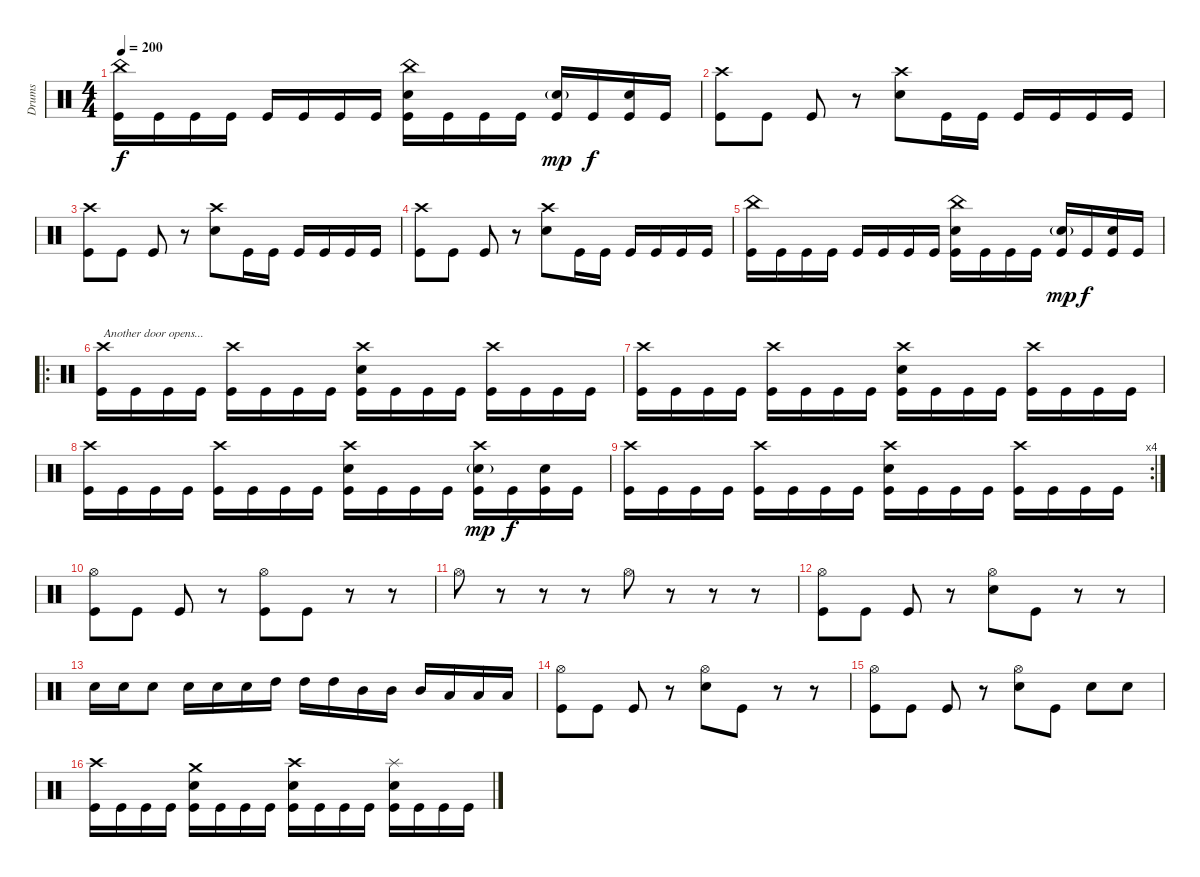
\track ("Drums" "Drums") {instrument percussion}
\staff {score}
\articulation defaults
\ts (4 4)
\tempo 200
\clef neutral
\ks c
("China (hit)" "Kick (hit)").16{dy f} "Kick (hit)".16 "Kick (hit)".16 "Kick (hit)".16 "Kick (hit)".16 "Kick (hit)".16 "Kick (hit)".16 "Kick (hit)".16 ("China (hit)" "Snare (hit) 2" "Kick (hit)").16 "Kick (hit)".16 "Kick (hit)".16 "Kick (hit)".16 ("Snare (hit) 2"{g} "Kick (hit)").16{dy mp} "Kick (hit)".16{dy f} ("Snare (hit) 2" "Kick (hit)").16 "Kick (hit)".16 |
("Crash high (hit)" "Kick (hit)").8 "Kick (hit)".8 "Kick (hit)".8 r.8 ("Crash high (hit)" "Snare (hit) 2").8 "Kick (hit)".16 "Kick (hit)".16 "Kick (hit)".16 "Kick (hit)".16 "Kick (hit)".16 "Kick (hit)".16 |
("Crash high (hit)" "Kick (hit)").8 "Kick (hit)".8 "Kick (hit)".8 r.8 ("Crash high (hit)" "Snare (hit) 2").8 "Kick (hit)".16 "Kick (hit)".16 "Kick (hit)".16 "Kick (hit)".16 "Kick (hit)".16 "Kick (hit)".16 |
("Crash high (hit)" "Kick (hit)").8 "Kick (hit)".8 "Kick (hit)".8 r.8 ("Crash high (hit)" "Snare (hit) 2").8 "Kick (hit)".16 "Kick (hit)".16 "Kick (hit)".16 "Kick (hit)".16 "Kick (hit)".16 "Kick (hit)".16 |
("China (hit)" "Kick (hit)").16 "Kick (hit)".16 "Kick (hit)".16 "Kick (hit)".16 "Kick (hit)".16 "Kick (hit)".16 "Kick (hit)".16 "Kick (hit)".16 ("China (hit)" "Snare (hit) 2" "Kick (hit)").16 "Kick (hit)".16 "Kick (hit)".16 "Kick (hit)".16 ("Snare (hit) 2"{g} "Kick (hit)").16{dy mp} "Kick (hit)".16{dy f} ("Snare (hit) 2" "Kick (hit)").16 "Kick (hit)".16 |
\ro
("Crash high (hit)" "Kick (hit)").16{txt "Another door opens..."} "Kick (hit)".16 "Kick (hit)".16 "Kick (hit)".16 ("Crash high (hit)" "Kick (hit)").16 "Kick (hit)".16 "Kick (hit)".16 "Kick (hit)".16 ("Crash high (hit)" "Snare (hit) 2" "Kick (hit)").16 "Kick (hit)".16 "Kick (hit)".16 "Kick (hit)".16 ("Crash high (hit)" "Kick (hit)").16 "Kick (hit)".16 "Kick (hit)".16 "Kick (hit)".16 |
("Crash high (hit)" "Kick (hit)").16 "Kick (hit)".16 "Kick (hit)".16 "Kick (hit)".16 ("Crash high (hit)" "Kick (hit)").16 "Kick (hit)".16 "Kick (hit)".16 "Kick (hit)".16 ("Crash high (hit)" "Snare (hit) 2" "Kick (hit)").16 "Kick (hit)".16 "Kick (hit)".16 "Kick (hit)".16 ("Crash high (hit)" "Kick (hit)").16 "Kick (hit)".16 "Kick (hit)".16 "Kick (hit)".16 |
("Crash high (hit)" "Kick (hit)").16 "Kick (hit)".16 "Kick (hit)".16 "Kick (hit)".16 ("Crash high (hit)" "Kick (hit)").16 "Kick (hit)".16 "Kick (hit)".16 "Kick (hit)".16 ("Crash high (hit)" "Snare (hit) 2" "Kick (hit)").16 "Kick (hit)".16 "Kick (hit)".16 "Kick (hit)".16 ("Crash high (hit)" "Snare (hit) 2"{g} "Kick (hit)").16{dy mp} "Kick (hit)".16{dy f} ("Snare (hit) 2" "Kick (hit)").16 "Kick (hit)".16 |
\rc 4
("Crash high (hit)" "Kick (hit)").16 "Kick (hit)".16 "Kick (hit)".16 "Kick (hit)".16 ("Crash high (hit)" "Kick (hit)").16 "Kick (hit)".16 "Kick (hit)".16 "Kick (hit)".16 ("Crash high (hit)" "Snare (hit) 2" "Kick (hit)").16 "Kick (hit)".16 "Kick (hit)".16 "Kick (hit)".16 ("Crash high (hit)" "Kick (hit)").16 "Kick (hit)".16 "Kick (hit)".16 "Kick (hit)".16 |
("Hi-Hat (open)" "Kick (hit)").8 "Kick (hit)".8 "Kick (hit)".8 r.8 ("Hi-Hat (open)" "Kick (hit)").8 "Kick (hit)".8 r.8 r.8 |
"Hi-Hat (open)".8 r.8 r.8 r.8 "Hi-Hat (open)".8 r.8 r.8 r.8 |
("Hi-Hat (open)" "Kick (hit)").8 "Kick (hit)".8 "Kick (hit)".8 r.8 ("Hi-Hat (open)" "Snare (hit) 2").8 "Kick (hit)".8 r.8 r.8 |
"Snare (hit) 2".16 "Snare (hit) 2".16 "Snare (hit) 2".8 "Snare (hit) 2".16 "Snare (hit) 2".16 "Snare (hit) 2".16 "High Tom (hit)".16 "High Tom (hit)".16 "High Tom (hit)".16 "Mid Tom (hit)".16 "Mid Tom (hit)".16 "Mid Tom (hit)".16 "Low Tom (hit)".16 "Low Tom (hit)".16 "Low Tom (hit)".16 |
("Hi-Hat (open)" "Kick (hit)").8 "Kick (hit)".8 "Kick (hit)".8 r.8 ("Hi-Hat (open)" "Snare (hit) 2").8 "Kick (hit)".8 r.8 r.8 |
("Hi-Hat (open)" "Kick (hit)").8 "Kick (hit)".8 "Kick (hit)".8 r.8 ("Hi-Hat (open)" "Snare (hit) 2").8 "Kick (hit)".8 "Snare (hit) 2".8 "Snare (hit) 2".8 |
("Crash high (hit)" "Kick (hit)").16 "Kick (hit)".16 "Kick (hit)".16 "Kick (hit)".16 ("Crash medium (hit)" "Snare (hit) 2" "Kick (hit)").16 "Kick (hit)".16 "Kick (hit)".16 "Kick (hit)".16 ("Crash high (hit)" "Snare (hit) 2" "Kick (hit)").16 "Kick (hit)".16 "Kick (hit)".16 "Kick (hit)".16 ("Splash (hit)" "Snare (hit) 2" "Kick (hit)").16 "Kick (hit)".16 "Kick (hit)".16 "Kick (hit)".16
